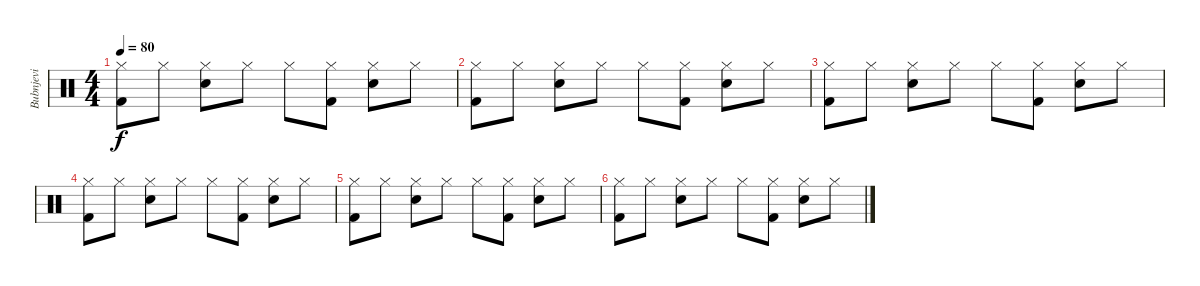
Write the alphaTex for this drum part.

\track ("Bubnjevi" "Bubnjevi") {instrument percussion}
\staff {score}
\articulation defaults
\ts (4 4)
\tempo 80
\clef neutral
\ks c
("Hi-Hat (closed)" "Kick (hit) 2").8{dy f} "Hi-Hat (closed)".8 ("Hi-Hat (closed)" "Electric Snare (hit)").8 "Hi-Hat (closed)".8 "Hi-Hat (closed)".8 ("Hi-Hat (closed)" "Kick (hit) 2").8 ("Hi-Hat (closed)" "Electric Snare (hit)").8 "Hi-Hat (closed)".8 |
("Hi-Hat (closed)" "Kick (hit) 2").8 "Hi-Hat (closed)".8 ("Hi-Hat (closed)" "Electric Snare (hit)").8 "Hi-Hat (closed)".8 "Hi-Hat (closed)".8 ("Hi-Hat (closed)" "Kick (hit) 2").8 ("Hi-Hat (closed)" "Electric Snare (hit)").8 "Hi-Hat (closed)".8 |
("Hi-Hat (closed)" "Kick (hit) 2").8 "Hi-Hat (closed)".8 ("Hi-Hat (closed)" "Electric Snare (hit)").8 "Hi-Hat (closed)".8 "Hi-Hat (closed)".8 ("Hi-Hat (closed)" "Kick (hit) 2").8 ("Hi-Hat (closed)" "Electric Snare (hit)").8 "Hi-Hat (closed)".8 |
("Hi-Hat (closed)" "Kick (hit) 2").8 "Hi-Hat (closed)".8 ("Hi-Hat (closed)" "Electric Snare (hit)").8 "Hi-Hat (closed)".8 "Hi-Hat (closed)".8 ("Hi-Hat (closed)" "Kick (hit) 2").8 ("Hi-Hat (closed)" "Electric Snare (hit)").8 "Hi-Hat (closed)".8 |
("Hi-Hat (closed)" "Kick (hit) 2").8 "Hi-Hat (closed)".8 ("Hi-Hat (closed)" "Electric Snare (hit)").8 "Hi-Hat (closed)".8 "Hi-Hat (closed)".8 ("Hi-Hat (closed)" "Kick (hit) 2").8 ("Hi-Hat (closed)" "Electric Snare (hit)").8 "Hi-Hat (closed)".8 |
("Hi-Hat (closed)" "Kick (hit) 2").8 "Hi-Hat (closed)".8 ("Hi-Hat (closed)" "Electric Snare (hit)").8 "Hi-Hat (closed)".8 "Hi-Hat (closed)".8 ("Hi-Hat (closed)" "Kick (hit) 2").8 ("Hi-Hat (closed)" "Electric Snare (hit)").8 "Hi-Hat (closed)".8
